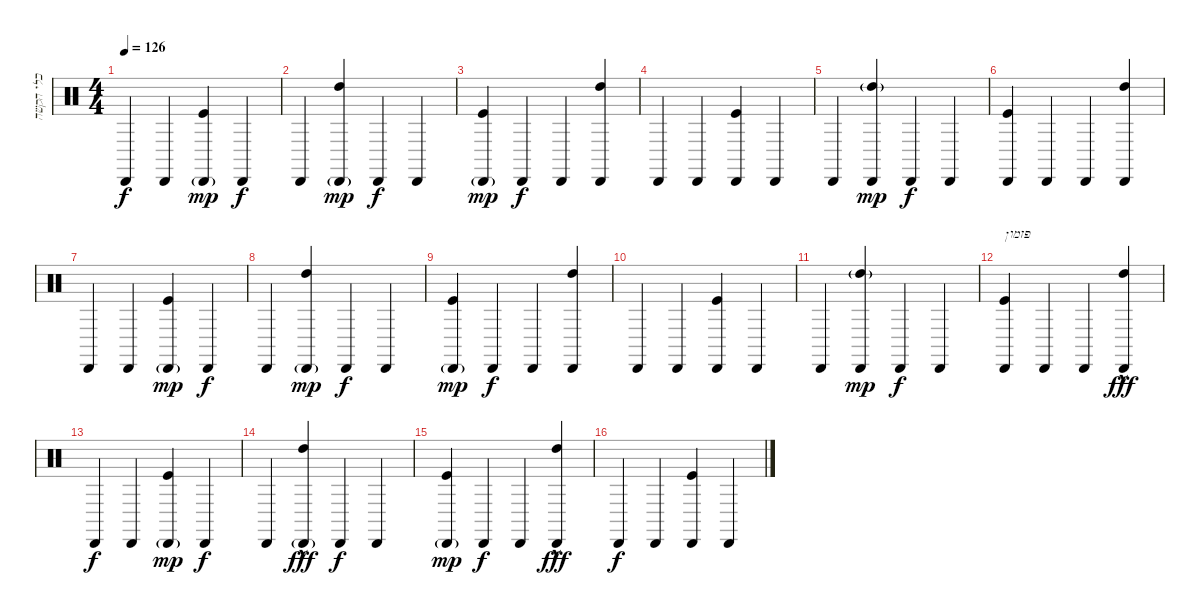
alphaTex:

\track ("כלי הקשה" "כלי הקשה") {instrument percussion}
\staff {score}
\articulation defaults
\ts (4 4)
\tempo 126
\clef neutral
\ks c "Cabasa (hit)".4{dy f} "Cabasa (hit)".4
("Cabasa (hit)"{g} "Kick (hit)").4{dy mp} "Cabasa (hit)".4{dy f} |
"Cabasa (hit)".4 ("Cabasa (hit)"{g} "High Tom (hit)").4{dy mp} "Cabasa (hit)".4{dy f} "Cabasa (hit)".4 |
("Cabasa (hit)"{g} "Kick (hit)").4{dy mp} "Cabasa (hit)".4{dy f} "Cabasa (hit)".4 ("High Tom (hit)" "Cabasa (hit)").4 |
"Cabasa (hit)".4 "Cabasa (hit)".4 ("Cabasa (hit)" "Kick (hit)").4 "Cabasa (hit)".4 |
"Cabasa (hit)".4 ("Cabasa (hit)" "High Tom (hit)"{g}).4{dy mp} "Cabasa (hit)".4{dy f} "Cabasa (hit)".4 |
("Cabasa (hit)" "Kick (hit)").4 "Cabasa (hit)".4 "Cabasa (hit)".4 ("High Tom (hit)" "Cabasa (hit)").4 |
"Cabasa (hit)".4 "Cabasa (hit)".4 ("Cabasa (hit)"{g} "Kick (hit)").4{dy mp} "Cabasa (hit)".4{dy f} |
"Cabasa (hit)".4 ("Cabasa (hit)"{g} "High Tom (hit)").4{dy mp} "Cabasa (hit)".4{dy f} "Cabasa (hit)".4 |
("Cabasa (hit)"{g} "Kick (hit)").4{dy mp} "Cabasa (hit)".4{dy f} "Cabasa (hit)".4 ("High Tom (hit)" "Cabasa (hit)").4 |
"Cabasa (hit)".4 "Cabasa (hit)".4 ("Cabasa (hit)" "Kick (hit)").4 "Cabasa (hit)".4 |
"Cabasa (hit)".4 ("Cabasa (hit)" "High Tom (hit)"{g}).4{dy mp} "Cabasa (hit)".4{dy f} "Cabasa (hit)".4 |
("Cabasa (hit)" "Kick (hit)").4{txt "פזמון"} "Cabasa (hit)".4 "Cabasa (hit)".4 ("High Tom (hit)"{hac} "Cabasa (hit)").4{dy fff} |
"Cabasa (hit)".4{dy f} "Cabasa (hit)".4 ("Cabasa (hit)"{g} "Kick (hit)").4{dy mp} "Cabasa (hit)".4{dy f} |
"Cabasa (hit)".4 ("Cabasa (hit)"{g} "High Tom (hit)"{hac}).4{dy fff} "Cabasa (hit)".4{dy f} "Cabasa (hit)".4 |
("Cabasa (hit)"{g} "Kick (hit)").4{dy mp} "Cabasa (hit)".4{dy f} "Cabasa (hit)".4 ("High Tom (hit)"{hac} "Cabasa (hit)").4{dy fff} |
"Cabasa (hit)".4{dy f} "Cabasa (hit)".4 ("Cabasa (hit)" "Kick (hit)").4 "Cabasa (hit)".4
